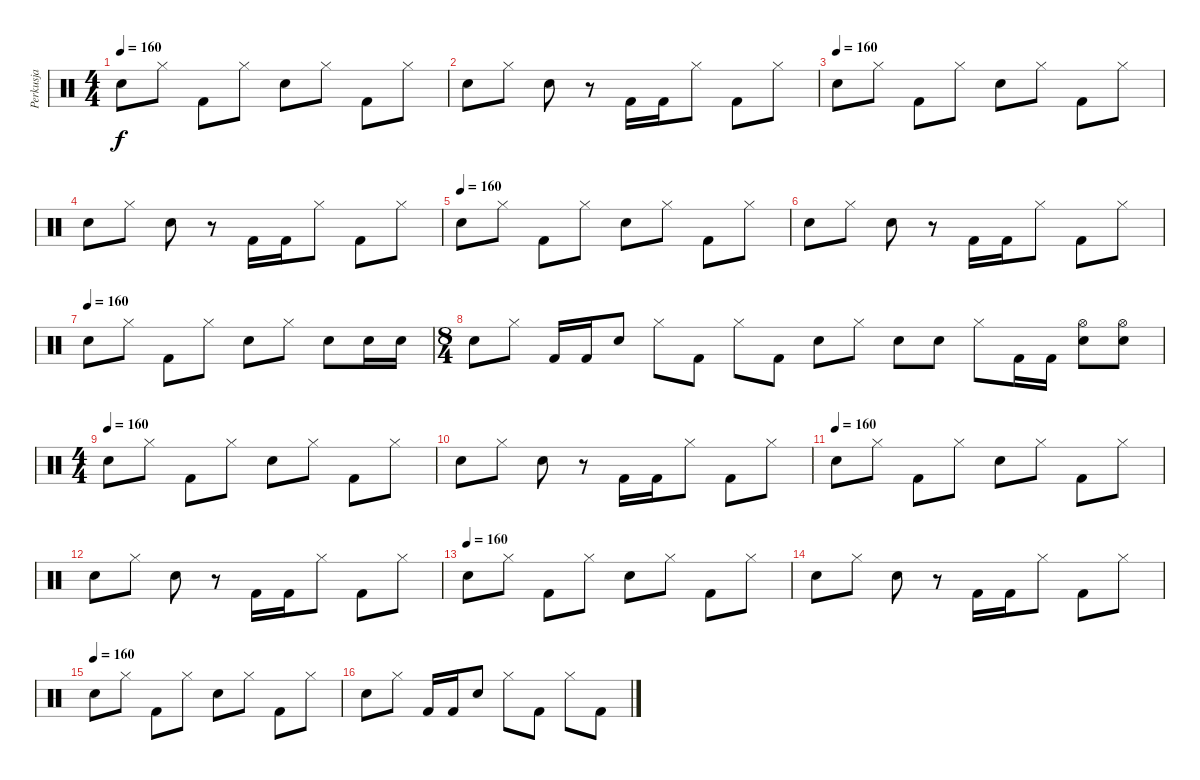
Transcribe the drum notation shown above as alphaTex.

\track ("Perkusja" "Perkusja") {instrument percussion}
\staff {score}
\articulation defaults
\ts (4 4)
\tempo 160
\clef neutral
\ks c "Snare (hit) 2".8{dy f} "Hi-Hat (closed)".8 "Kick (hit) 2".8 "Hi-Hat (closed)".8 "Snare (hit) 2".8 "Hi-Hat (closed)".8 "Kick (hit) 2".8 "Hi-Hat (closed)".8
|
"Snare (hit) 2".8 "Hi-Hat (closed)".8 "Snare (hit) 2".8 r.8 "Kick (hit) 2".16 "Kick (hit) 2".16 "Hi-Hat (closed)".8 "Kick (hit) 2".8 "Hi-Hat (closed)".8 |
\tempo (160)
"Snare (hit) 2".8 "Hi-Hat (closed)".8 "Kick (hit) 2".8 "Hi-Hat (closed)".8 "Snare (hit) 2".8 "Hi-Hat (closed)".8 "Kick (hit) 2".8 "Hi-Hat (closed)".8 |
"Snare (hit) 2".8 "Hi-Hat (closed)".8 "Snare (hit) 2".8 r.8 "Kick (hit) 2".16 "Kick (hit) 2".16 "Hi-Hat (closed)".8 "Kick (hit) 2".8 "Hi-Hat (closed)".8 |
\tempo (160)
"Snare (hit) 2".8 "Hi-Hat (closed)".8 "Kick (hit) 2".8 "Hi-Hat (closed)".8 "Snare (hit) 2".8 "Hi-Hat (closed)".8 "Kick (hit) 2".8 "Hi-Hat (closed)".8 |
"Snare (hit) 2".8 "Hi-Hat (closed)".8 "Snare (hit) 2".8 r.8 "Kick (hit) 2".16 "Kick (hit) 2".16 "Hi-Hat (closed)".8 "Kick (hit) 2".8 "Hi-Hat (closed)".8 |
\tempo (160)
"Snare (hit) 2".8 "Hi-Hat (closed)".8 "Kick (hit) 2".8 "Hi-Hat (closed)".8 "Snare (hit) 2".8 "Hi-Hat (closed)".8 "Snare (hit) 2".8 "Snare (hit) 2".16 "Snare (hit) 2".16 |
\ts (8 4)
"Snare (hit) 2".8 "Hi-Hat (closed)".8 "Kick (hit) 2".16 "Kick (hit) 2".16 "Snare (hit) 2".8 "Hi-Hat (closed)".8 "Kick (hit) 2".8 "Hi-Hat (closed)".8 "Kick (hit) 2".8 "Snare (hit) 2".8 "Hi-Hat (closed)".8 "Snare (hit) 2".8 "Snare (hit) 2".8 "Hi-Hat (closed)".8 "Kick (hit) 2".16 "Kick (hit) 2".16 ("Snare (hit) 2" "Hi-Hat (open)").8 ("Snare (hit) 2" "Hi-Hat (open)").8 |
\ts (4 4)
\tempo (160)
"Snare (hit) 2".8 "Hi-Hat (closed)".8 "Kick (hit) 2".8 "Hi-Hat (closed)".8 "Snare (hit) 2".8 "Hi-Hat (closed)".8 "Kick (hit) 2".8 "Hi-Hat (closed)".8 |
"Snare (hit) 2".8 "Hi-Hat (closed)".8 "Snare (hit) 2".8 r.8 "Kick (hit) 2".16 "Kick (hit) 2".16 "Hi-Hat (closed)".8 "Kick (hit) 2".8 "Hi-Hat (closed)".8 |
\tempo (160)
"Snare (hit) 2".8 "Hi-Hat (closed)".8 "Kick (hit) 2".8 "Hi-Hat (closed)".8 "Snare (hit) 2".8 "Hi-Hat (closed)".8 "Kick (hit) 2".8 "Hi-Hat (closed)".8 |
"Snare (hit) 2".8 "Hi-Hat (closed)".8 "Snare (hit) 2".8 r.8 "Kick (hit) 2".16 "Kick (hit) 2".16 "Hi-Hat (closed)".8 "Kick (hit) 2".8 "Hi-Hat (closed)".8 |
\tempo (160)
"Snare (hit) 2".8 "Hi-Hat (closed)".8 "Kick (hit) 2".8 "Hi-Hat (closed)".8 "Snare (hit) 2".8 "Hi-Hat (closed)".8 "Kick (hit) 2".8 "Hi-Hat (closed)".8 |
"Snare (hit) 2".8 "Hi-Hat (closed)".8 "Snare (hit) 2".8 r.8 "Kick (hit) 2".16 "Kick (hit) 2".16 "Hi-Hat (closed)".8 "Kick (hit) 2".8 "Hi-Hat (closed)".8 |
\tempo (160)
"Snare (hit) 2".8 "Hi-Hat (closed)".8 "Kick (hit) 2".8 "Hi-Hat (closed)".8 "Snare (hit) 2".8 "Hi-Hat (closed)".8 "Kick (hit) 2".8 "Hi-Hat (closed)".8 |
"Snare (hit) 2".8 "Hi-Hat (closed)".8 "Kick (hit) 2".16 "Kick (hit) 2".16 "Snare (hit) 2".8 "Hi-Hat (closed)".8 "Kick (hit) 2".8 "Hi-Hat (closed)".8 "Kick (hit) 2".8
